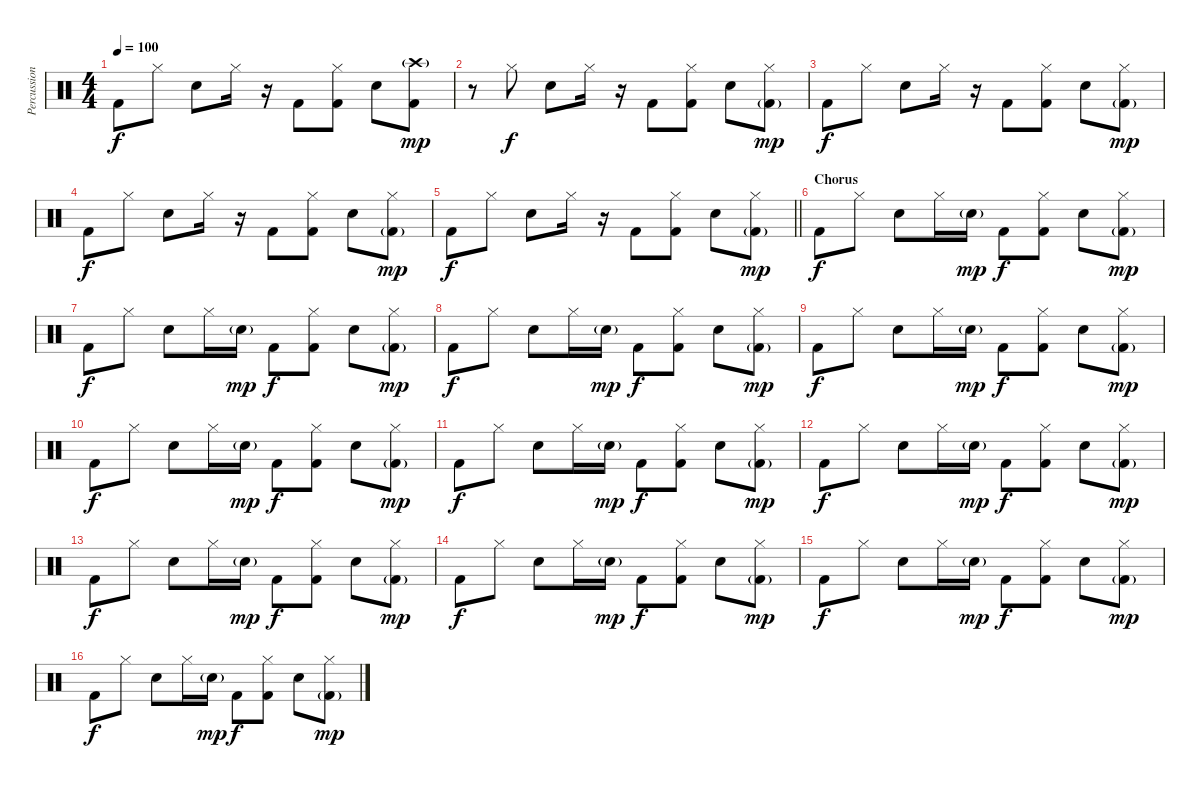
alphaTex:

\track ("Percussion" "Percussion") {instrument percussion}
\staff {score}
\articulation defaults
\ts (4 4)
\tempo 100
\clef neutral
\ks c "Kick (hit) 2".8{dy f} "Hi-Hat (closed)".8 "Snare (hit) 2".8 "Hi-Hat (closed)".16
r.16 "Kick (hit) 2".8 ("Hi-Hat (closed)" "Kick (hit) 2").8 "Snare (hit) 2".8 ("Crash high (hit)"{g} "Kick (hit) 2").8{dy mp} |
r.8 "Hi-Hat (closed)".8{dy f} "Snare (hit) 2".8 "Hi-Hat (closed)".16 r.16 "Kick (hit) 2".8 ("Hi-Hat (closed)" "Kick (hit) 2").8 "Snare (hit) 2".8 ("Hi-Hat (closed)" "Kick (hit) 2"{g}).8{dy mp} |
"Kick (hit) 2".8{dy f} "Hi-Hat (closed)".8 "Snare (hit) 2".8 "Hi-Hat (closed)".16 r.16 "Kick (hit) 2".8 ("Hi-Hat (closed)" "Kick (hit) 2").8 "Snare (hit) 2".8 ("Hi-Hat (closed)" "Kick (hit) 2"{g}).8{dy mp} |
"Kick (hit) 2".8{dy f} "Hi-Hat (closed)".8 "Snare (hit) 2".8 "Hi-Hat (closed)".16 r.16 "Kick (hit) 2".8 ("Hi-Hat (closed)" "Kick (hit) 2").8 "Snare (hit) 2".8 ("Hi-Hat (closed)" "Kick (hit) 2"{g}).8{dy mp} |
\barLineRight lightlight "Kick (hit) 2".8{dy f} "Hi-Hat (closed)".8 "Snare (hit) 2".8 "Hi-Hat (closed)".16
r.16 "Kick (hit) 2".8 ("Hi-Hat (closed)" "Kick (hit) 2").8 "Snare (hit) 2".8 ("Hi-Hat (closed)" "Kick (hit) 2"{g}).8{dy mp} |
\section ("" "Chorus")
"Kick (hit) 2".8{dy f} "Hi-Hat (closed)".8 "Snare (hit) 2".8 "Hi-Hat (closed)".16 "Snare (hit) 2"{g}.16{dy mp} "Kick (hit) 2".8{dy f} ("Hi-Hat (closed)" "Kick (hit) 2").8 "Snare (hit) 2".8 ("Hi-Hat (closed)" "Kick (hit) 2"{g}).8{dy mp} |
"Kick (hit) 2".8{dy f} "Hi-Hat (closed)".8 "Snare (hit) 2".8 "Hi-Hat (closed)".16 "Snare (hit) 2"{g}.16{dy mp} "Kick (hit) 2".8{dy f} ("Hi-Hat (closed)" "Kick (hit) 2").8 "Snare (hit) 2".8 ("Hi-Hat (closed)" "Kick (hit) 2"{g}).8{dy mp} |
"Kick (hit) 2".8{dy f} "Hi-Hat (closed)".8 "Snare (hit) 2".8 "Hi-Hat (closed)".16 "Snare (hit) 2"{g}.16{dy mp} "Kick (hit) 2".8{dy f} ("Hi-Hat (closed)" "Kick (hit) 2").8 "Snare (hit) 2".8 ("Hi-Hat (closed)" "Kick (hit) 2"{g}).8{dy mp} |
"Kick (hit) 2".8{dy f} "Hi-Hat (closed)".8 "Snare (hit) 2".8 "Hi-Hat (closed)".16 "Snare (hit) 2"{g}.16{dy mp} "Kick (hit) 2".8{dy f} ("Hi-Hat (closed)" "Kick (hit) 2").8 "Snare (hit) 2".8 ("Hi-Hat (closed)" "Kick (hit) 2"{g}).8{dy mp} |
"Kick (hit) 2".8{dy f} "Hi-Hat (closed)".8 "Snare (hit) 2".8 "Hi-Hat (closed)".16 "Snare (hit) 2"{g}.16{dy mp} "Kick (hit) 2".8{dy f} ("Hi-Hat (closed)" "Kick (hit) 2").8 "Snare (hit) 2".8 ("Hi-Hat (closed)" "Kick (hit) 2"{g}).8{dy mp} |
"Kick (hit) 2".8{dy f} "Hi-Hat (closed)".8 "Snare (hit) 2".8 "Hi-Hat (closed)".16 "Snare (hit) 2"{g}.16{dy mp} "Kick (hit) 2".8{dy f} ("Hi-Hat (closed)" "Kick (hit) 2").8 "Snare (hit) 2".8 ("Hi-Hat (closed)" "Kick (hit) 2"{g}).8{dy mp} |
"Kick (hit) 2".8{dy f} "Hi-Hat (closed)".8 "Snare (hit) 2".8 "Hi-Hat (closed)".16 "Snare (hit) 2"{g}.16{dy mp} "Kick (hit) 2".8{dy f} ("Hi-Hat (closed)" "Kick (hit) 2").8 "Snare (hit) 2".8 ("Hi-Hat (closed)" "Kick (hit) 2"{g}).8{dy mp} |
"Kick (hit) 2".8{dy f} "Hi-Hat (closed)".8 "Snare (hit) 2".8 "Hi-Hat (closed)".16 "Snare (hit) 2"{g}.16{dy mp} "Kick (hit) 2".8{dy f} ("Hi-Hat (closed)" "Kick (hit) 2").8 "Snare (hit) 2".8 ("Hi-Hat (closed)" "Kick (hit) 2"{g}).8{dy mp} |
"Kick (hit) 2".8{dy f} "Hi-Hat (closed)".8 "Snare (hit) 2".8 "Hi-Hat (closed)".16 "Snare (hit) 2"{g}.16{dy mp} "Kick (hit) 2".8{dy f} ("Hi-Hat (closed)" "Kick (hit) 2").8 "Snare (hit) 2".8 ("Hi-Hat (closed)" "Kick (hit) 2"{g}).8{dy mp} |
"Kick (hit) 2".8{dy f} "Hi-Hat (closed)".8 "Snare (hit) 2".8 "Hi-Hat (closed)".16 "Snare (hit) 2"{g}.16{dy mp} "Kick (hit) 2".8{dy f} ("Hi-Hat (closed)" "Kick (hit) 2").8 "Snare (hit) 2".8 ("Hi-Hat (closed)" "Kick (hit) 2"{g}).8{dy mp} |
"Kick (hit) 2".8{dy f} "Hi-Hat (closed)".8 "Snare (hit) 2".8 "Hi-Hat (closed)".16 "Snare (hit) 2"{g}.16{dy mp} "Kick (hit) 2".8{dy f} ("Hi-Hat (closed)" "Kick (hit) 2").8 "Snare (hit) 2".8 ("Hi-Hat (closed)" "Kick (hit) 2"{g}).8{dy mp}
